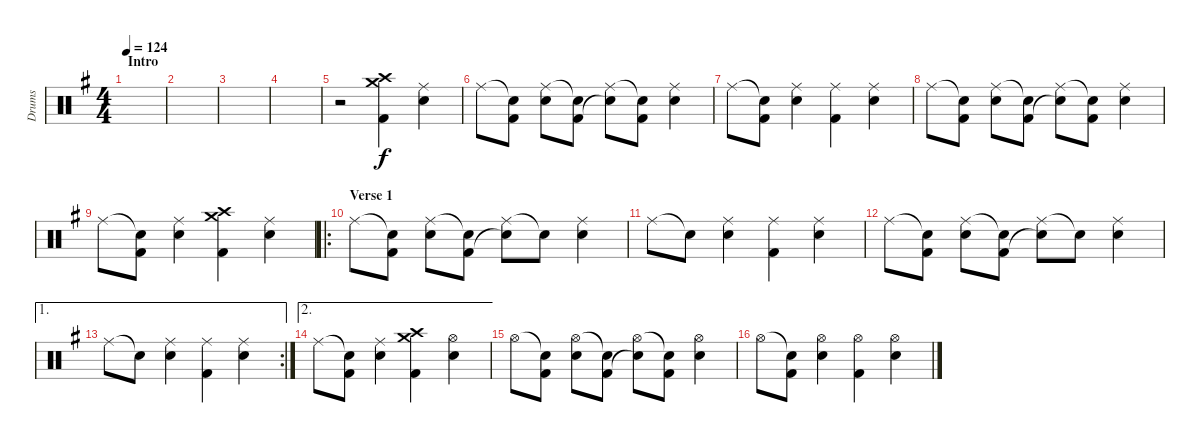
\track ("Drums" "Drums") {instrument percussion}
\staff {score}
\articulation defaults
\ts (4 4)
\section ("" "Intro")
\tempo 124
\clef neutral
\ks g
|
|
|
|
r.2 ("Kick (hit) 2" "Crash medium (hit)" "Crash high (hit)").4 ("Ride (middle)" "Snare (hit) 2").4 |
"Ride (middle)".8 ("Snare (hit)"{t} "Kick (hit) 2").8 ("Ride (middle)" "Snare (hit) 2").8 ("Snare (hit)"{t} "Kick (hit) 2").8 ("Ride (middle)" "Snare (hit)"{t}).8 ("Snare (hit)"{t} "Kick (hit) 2").8 ("Ride (middle)" "Snare (hit) 2").4 |
"Ride (middle)".8 ("Snare (hit)"{t} "Kick (hit) 2").8 ("Ride (middle)" "Snare (hit) 2").4 ("Ride (middle)" "Kick (hit) 2").4 ("Ride (middle)" "Snare (hit) 2").4 |
"Ride (middle)".8 ("Snare (hit)"{t} "Kick (hit) 2").8 ("Ride (middle)" "Snare (hit) 2").8 ("Snare (hit)"{t} "Kick (hit) 2").8 ("Ride (middle)" "Snare (hit)"{t}).8 ("Snare (hit)"{t} "Kick (hit) 2").8 ("Ride (middle)" "Snare (hit) 2").4 |
"Ride (middle)".8 ("Snare (hit)"{t} "Kick (hit) 2").8 ("Ride (middle)" "Snare (hit) 2").4 ("Crash medium (hit)" "Crash high (hit)" "Kick (hit) 2").4 ("Ride (middle)" "Snare (hit) 2").4 |
\ro
\section ("" "Verse 1")
"Ride (middle)".8 ("Snare (hit)"{t} "Kick (hit) 2").8 ("Ride (middle)" "Snare (hit) 2").8 ("Snare (hit)"{t} "Kick (hit) 2").8 ("Ride (middle)" "Snare (hit)"{t}).8 "Snare (hit)"{t}.8 ("Ride (middle)" "Snare (hit) 2").4 |
"Ride (middle)".8 "Snare (hit)"{t}.8 ("Ride (middle)" "Snare (hit) 2").4 ("Ride (middle)" "Kick (hit) 2").4 ("Ride (middle)" "Snare (hit) 2").4 |
"Ride (middle)".8 ("Snare (hit)"{t} "Kick (hit) 2").8 ("Ride (middle)" "Snare (hit) 2").8 ("Snare (hit)"{t} "Kick (hit) 2").8 ("Ride (middle)" "Snare (hit)"{t}).8 "Snare (hit)"{t}.8 ("Ride (middle)" "Snare (hit) 2").4 |
\ae 1
\rc 2 "Ride (middle)".8 "Snare (hit)"{t}.8
("Ride (middle)" "Snare (hit) 2").4 ("Ride (middle)" "Kick (hit) 2").4 ("Ride (middle)" "Snare (hit) 2").4 |
\ae 2 "Ride (middle)".8
("Snare (hit)"{t} "Kick (hit) 2").8 ("Ride (middle)" "Snare (hit) 2").4 ("Crash medium (hit)" "Crash high (hit)" "Kick (hit) 2").4 ("Hi-Hat (open)" "Snare (hit) 2").4 |
"Hi-Hat (open)".8 ("Snare (hit)"{t} "Kick (hit) 2").8 ("Hi-Hat (open)" "Snare (hit) 2").8 ("Snare (hit)"{t} "Kick (hit) 2").8 ("Hi-Hat (open)" "Snare (hit)"{t}).8 ("Snare (hit)"{t} "Kick (hit) 2").8 ("Hi-Hat (open)" "Snare (hit) 2").4 |
"Hi-Hat (open)".8 ("Snare (hit)"{t} "Kick (hit) 2").8 ("Hi-Hat (open)" "Snare (hit) 2").4 ("Hi-Hat (open)" "Kick (hit) 2").4 ("Hi-Hat (open)" "Snare (hit) 2").4
